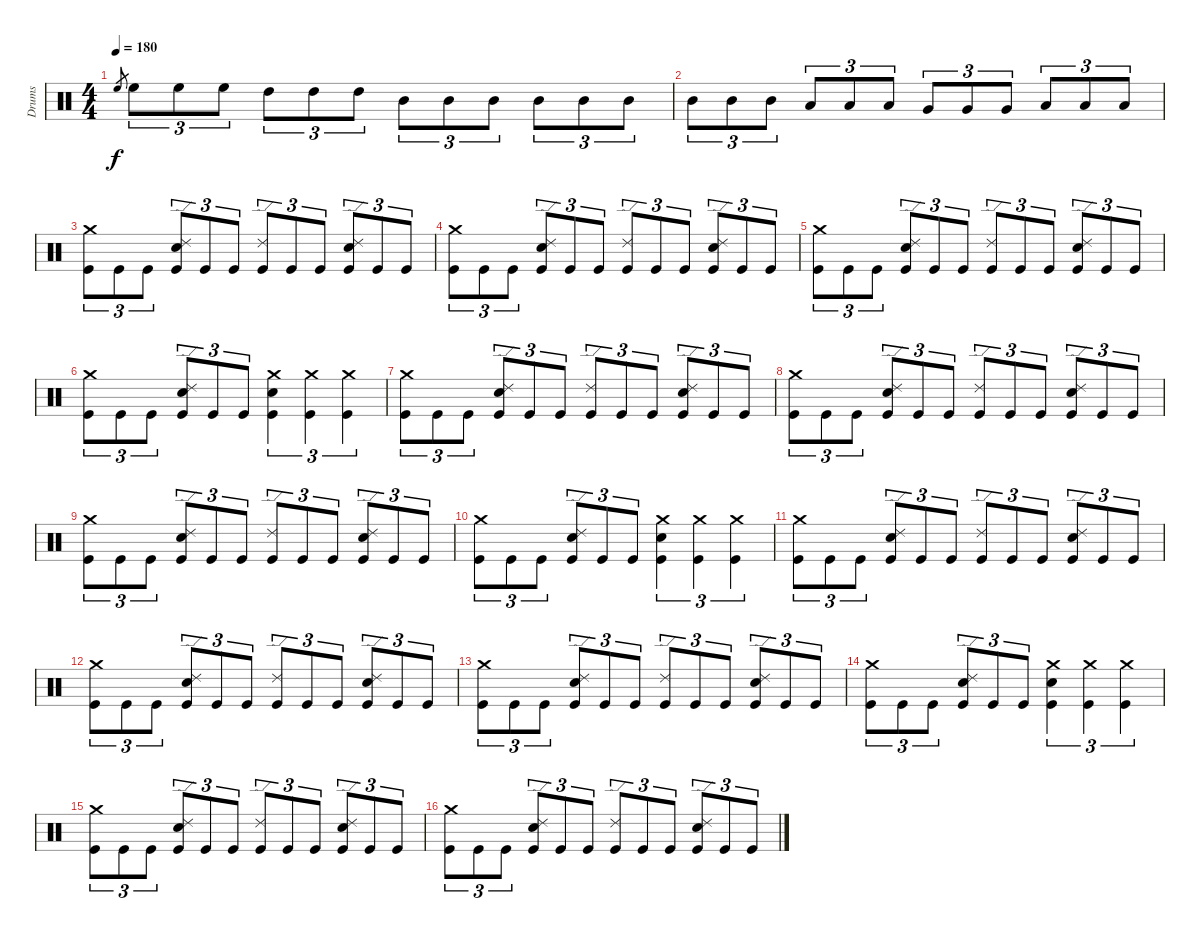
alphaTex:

\track ("Drums" "Drums") {instrument percussion}
\staff {score}
\articulation defaults
\ts (4 4)
\tempo 180
\clef neutral
\ks c "High Floor Tom (hit)".8{gr dy f} "High Floor Tom (hit)".8{tu (3 2)} "High Floor Tom (hit)".8{tu (3 2)} "High Floor Tom (hit)".8{tu (3 2)} "High Tom (hit)".8{tu (3 2)} "High Tom (hit)".8{tu (3 2)} "High Tom (hit)".8{tu (3 2)} "Mid Tom (hit)".8{tu (3 2)} "Mid Tom (hit)".8{tu (3 2)} "Mid Tom (hit)".8{tu (3 2)} "Mid Tom (hit)".8{tu (3 2)} "Mid Tom (hit)".8{tu (3 2)} "Mid Tom (hit)".8{tu (3 2)}
|
"Mid Tom (hit)".8{tu (3 2)} "Mid Tom (hit)".8{tu (3 2)} "Mid Tom (hit)".8{tu (3 2)} "Low Tom (hit)".8{tu (3 2)} "Low Tom (hit)".8{tu (3 2)} "Low Tom (hit)".8{tu (3 2)} "Very Low Tom (hit)".8{tu (3 2)} "Very Low Tom (hit)".8{tu (3 2)} "Very Low Tom (hit)".8{tu (3 2)} "Low Floor Tom (hit)".8{tu (3 2)} "Low Floor Tom (hit)".8{tu (3 2)} "Low Floor Tom (hit)".8{tu (3 2)} |
("Crash medium (hit)" "Kick (hit)").8{tu (3 2)} "Kick (hit)".8{tu (3 2)} "Kick (hit)".8{tu (3 2)} ("Ride (edge) 2" "Snare (hit) 2" "Kick (hit)").8{tu (3 2)} "Kick (hit)".8{tu (3 2)} "Kick (hit)".8{tu (3 2)} ("Ride (edge) 2" "Kick (hit)").8{tu (3 2)} "Kick (hit)".8{tu (3 2)} "Kick (hit)".8{tu (3 2)} ("Ride (edge) 2" "Snare (hit) 2" "Kick (hit)").8{tu (3 2)} "Kick (hit)".8{tu (3 2)} "Kick (hit)".8{tu (3 2)} |
("Crash medium (hit)" "Kick (hit)").8{tu (3 2)} "Kick (hit)".8{tu (3 2)} "Kick (hit)".8{tu (3 2)} ("Ride (edge) 2" "Snare (hit) 2" "Kick (hit)").8{tu (3 2)} "Kick (hit)".8{tu (3 2)} "Kick (hit)".8{tu (3 2)} ("Ride (edge) 2" "Kick (hit)").8{tu (3 2)} "Kick (hit)".8{tu (3 2)} "Kick (hit)".8{tu (3 2)} ("Ride (edge) 2" "Snare (hit) 2" "Kick (hit)").8{tu (3 2)} "Kick (hit)".8{tu (3 2)} "Kick (hit)".8{tu (3 2)} |
("Crash medium (hit)" "Kick (hit)").8{tu (3 2)} "Kick (hit)".8{tu (3 2)} "Kick (hit)".8{tu (3 2)} ("Ride (edge) 2" "Snare (hit) 2" "Kick (hit)").8{tu (3 2)} "Kick (hit)".8{tu (3 2)} "Kick (hit)".8{tu (3 2)} ("Ride (edge) 2" "Kick (hit)").8{tu (3 2)} "Kick (hit)".8{tu (3 2)} "Kick (hit)".8{tu (3 2)} ("Ride (edge) 2" "Snare (hit) 2" "Kick (hit)").8{tu (3 2)} "Kick (hit)".8{tu (3 2)} "Kick (hit)".8{tu (3 2)} |
("Crash medium (hit)" "Kick (hit)").8{tu (3 2)} "Kick (hit)".8{tu (3 2)} "Kick (hit)".8{tu (3 2)} ("Ride (edge) 2" "Snare (hit) 2" "Kick (hit)").8{tu (3 2)} "Kick (hit)".8{tu (3 2)} "Kick (hit)".8{tu (3 2)} ("Crash medium (hit)" "Snare (hit) 2" "Kick (hit)").4{tu (3 2)} ("Crash medium (hit)" "Kick (hit)").4{tu (3 2)} ("Crash medium (hit)" "Kick (hit)").4{tu (3 2)} |
("Crash medium (hit)" "Kick (hit)").8{tu (3 2)} "Kick (hit)".8{tu (3 2)} "Kick (hit)".8{tu (3 2)} ("Ride (edge) 2" "Snare (hit) 2" "Kick (hit)").8{tu (3 2)} "Kick (hit)".8{tu (3 2)} "Kick (hit)".8{tu (3 2)} ("Ride (edge) 2" "Kick (hit)").8{tu (3 2)} "Kick (hit)".8{tu (3 2)} "Kick (hit)".8{tu (3 2)} ("Ride (edge) 2" "Snare (hit) 2" "Kick (hit)").8{tu (3 2)} "Kick (hit)".8{tu (3 2)} "Kick (hit)".8{tu (3 2)} |
("Crash medium (hit)" "Kick (hit)").8{tu (3 2)} "Kick (hit)".8{tu (3 2)} "Kick (hit)".8{tu (3 2)} ("Ride (edge) 2" "Snare (hit) 2" "Kick (hit)").8{tu (3 2)} "Kick (hit)".8{tu (3 2)} "Kick (hit)".8{tu (3 2)} ("Ride (edge) 2" "Kick (hit)").8{tu (3 2)} "Kick (hit)".8{tu (3 2)} "Kick (hit)".8{tu (3 2)} ("Ride (edge) 2" "Snare (hit) 2" "Kick (hit)").8{tu (3 2)} "Kick (hit)".8{tu (3 2)} "Kick (hit)".8{tu (3 2)} |
("Crash medium (hit)" "Kick (hit)").8{tu (3 2)} "Kick (hit)".8{tu (3 2)} "Kick (hit)".8{tu (3 2)} ("Ride (edge) 2" "Snare (hit) 2" "Kick (hit)").8{tu (3 2)} "Kick (hit)".8{tu (3 2)} "Kick (hit)".8{tu (3 2)} ("Ride (edge) 2" "Kick (hit)").8{tu (3 2)} "Kick (hit)".8{tu (3 2)} "Kick (hit)".8{tu (3 2)} ("Ride (edge) 2" "Snare (hit) 2" "Kick (hit)").8{tu (3 2)} "Kick (hit)".8{tu (3 2)} "Kick (hit)".8{tu (3 2)} |
("Crash medium (hit)" "Kick (hit)").8{tu (3 2)} "Kick (hit)".8{tu (3 2)} "Kick (hit)".8{tu (3 2)} ("Ride (edge) 2" "Snare (hit) 2" "Kick (hit)").8{tu (3 2)} "Kick (hit)".8{tu (3 2)} "Kick (hit)".8{tu (3 2)} ("Crash medium (hit)" "Snare (hit) 2" "Kick (hit)").4{tu (3 2)} ("Crash medium (hit)" "Kick (hit)").4{tu (3 2)} ("Crash medium (hit)" "Kick (hit)").4{tu (3 2)} |
("Crash medium (hit)" "Kick (hit)").8{tu (3 2)} "Kick (hit)".8{tu (3 2)} "Kick (hit)".8{tu (3 2)} ("Ride (edge) 2" "Snare (hit) 2" "Kick (hit)").8{tu (3 2)} "Kick (hit)".8{tu (3 2)} "Kick (hit)".8{tu (3 2)} ("Ride (edge) 2" "Kick (hit)").8{tu (3 2)} "Kick (hit)".8{tu (3 2)} "Kick (hit)".8{tu (3 2)} ("Ride (edge) 2" "Snare (hit) 2" "Kick (hit)").8{tu (3 2)} "Kick (hit)".8{tu (3 2)} "Kick (hit)".8{tu (3 2)} |
("Crash medium (hit)" "Kick (hit)").8{tu (3 2)} "Kick (hit)".8{tu (3 2)} "Kick (hit)".8{tu (3 2)} ("Ride (edge) 2" "Snare (hit) 2" "Kick (hit)").8{tu (3 2)} "Kick (hit)".8{tu (3 2)} "Kick (hit)".8{tu (3 2)} ("Ride (edge) 2" "Kick (hit)").8{tu (3 2)} "Kick (hit)".8{tu (3 2)} "Kick (hit)".8{tu (3 2)} ("Ride (edge) 2" "Snare (hit) 2" "Kick (hit)").8{tu (3 2)} "Kick (hit)".8{tu (3 2)} "Kick (hit)".8{tu (3 2)} |
("Crash medium (hit)" "Kick (hit)").8{tu (3 2)} "Kick (hit)".8{tu (3 2)} "Kick (hit)".8{tu (3 2)} ("Ride (edge) 2" "Snare (hit) 2" "Kick (hit)").8{tu (3 2)} "Kick (hit)".8{tu (3 2)} "Kick (hit)".8{tu (3 2)} ("Ride (edge) 2" "Kick (hit)").8{tu (3 2)} "Kick (hit)".8{tu (3 2)} "Kick (hit)".8{tu (3 2)} ("Ride (edge) 2" "Snare (hit) 2" "Kick (hit)").8{tu (3 2)} "Kick (hit)".8{tu (3 2)} "Kick (hit)".8{tu (3 2)} |
("Crash medium (hit)" "Kick (hit)").8{tu (3 2)} "Kick (hit)".8{tu (3 2)} "Kick (hit)".8{tu (3 2)} ("Ride (edge) 2" "Snare (hit) 2" "Kick (hit)").8{tu (3 2)} "Kick (hit)".8{tu (3 2)} "Kick (hit)".8{tu (3 2)} ("Crash medium (hit)" "Snare (hit) 2" "Kick (hit)").4{tu (3 2)} ("Crash medium (hit)" "Kick (hit)").4{tu (3 2)} ("Crash medium (hit)" "Kick (hit)").4{tu (3 2)} |
("Crash medium (hit)" "Kick (hit)").8{tu (3 2)} "Kick (hit)".8{tu (3 2)} "Kick (hit)".8{tu (3 2)} ("Ride (edge) 2" "Snare (hit) 2" "Kick (hit)").8{tu (3 2)} "Kick (hit)".8{tu (3 2)} "Kick (hit)".8{tu (3 2)} ("Ride (edge) 2" "Kick (hit)").8{tu (3 2)} "Kick (hit)".8{tu (3 2)} "Kick (hit)".8{tu (3 2)} ("Ride (edge) 2" "Snare (hit) 2" "Kick (hit)").8{tu (3 2)} "Kick (hit)".8{tu (3 2)} "Kick (hit)".8{tu (3 2)} |
("Crash medium (hit)" "Kick (hit)").8{tu (3 2)} "Kick (hit)".8{tu (3 2)} "Kick (hit)".8{tu (3 2)} ("Ride (edge) 2" "Snare (hit) 2" "Kick (hit)").8{tu (3 2)} "Kick (hit)".8{tu (3 2)} "Kick (hit)".8{tu (3 2)} ("Ride (edge) 2" "Kick (hit)").8{tu (3 2)} "Kick (hit)".8{tu (3 2)} "Kick (hit)".8{tu (3 2)} ("Ride (edge) 2" "Snare (hit) 2" "Kick (hit)").8{tu (3 2)} "Kick (hit)".8{tu (3 2)} "Kick (hit)".8{tu (3 2)}
